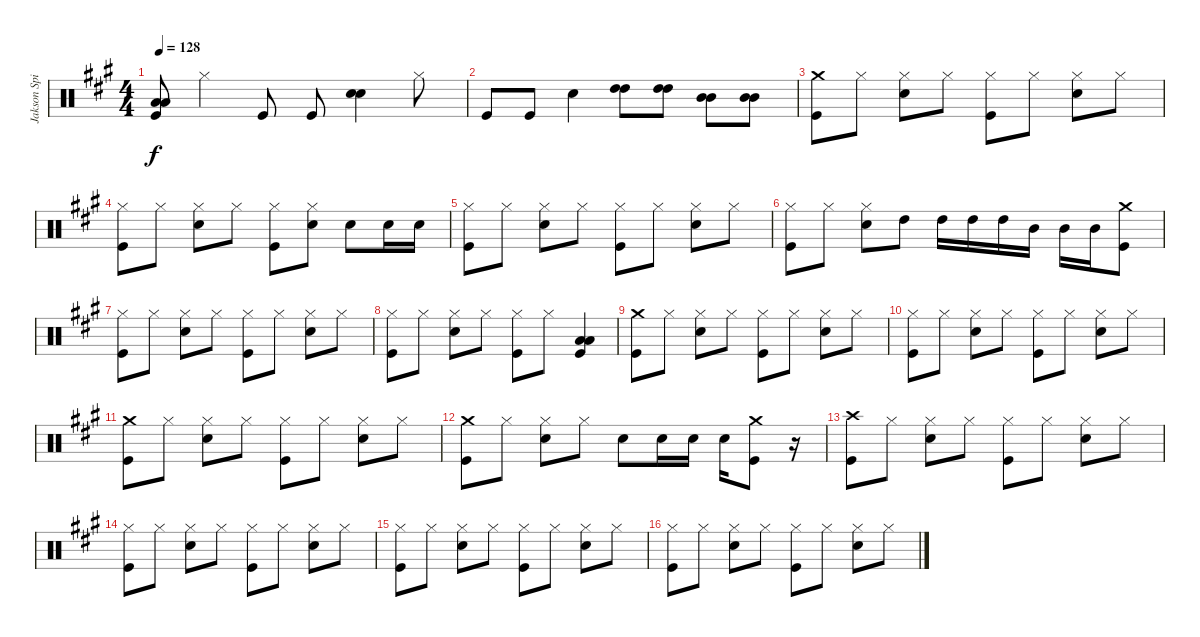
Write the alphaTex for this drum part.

\track ("Jakson Spires Drums" "Jakson Spi") {instrument percussion}
\staff {score}
\articulation defaults
\ts (4 4)
\tempo 128
\clef neutral
\ks a
("Low Tom (hit)" "Low Tom (hit)" "Kick (hit)").8{dy f} "Hi-Hat (closed)".4 "Kick (hit)".8 "Kick (hit)".8 ("Snare (hit) 2" "Snare (hit) 2").4 "Hi-Hat (closed)".8 |
"Kick (hit)".8 "Kick (hit)".8 "Snare (hit) 2".4 ("High Tom (hit)" "High Tom (hit)").8 ("High Tom (hit)" "High Tom (hit)").8 ("Mid Tom (hit)" "Mid Tom (hit)").8 ("Mid Tom (hit)" "Mid Tom (hit)").8 |
("Crash medium (hit)" "Kick (hit)").8 "Hi-Hat (closed)".8 ("Hi-Hat (closed)" "Snare (hit) 2").8 "Hi-Hat (closed)".8 ("Hi-Hat (closed)" "Kick (hit)").8 "Hi-Hat (closed)".8 ("Hi-Hat (closed)" "Snare (hit) 2").8 "Hi-Hat (closed)".8 |
("Hi-Hat (closed)" "Kick (hit)").8 "Hi-Hat (closed)".8 ("Hi-Hat (closed)" "Snare (hit) 2").8 "Hi-Hat (closed)".8 ("Hi-Hat (closed)" "Kick (hit)").8 ("Hi-Hat (closed)" "Snare (hit) 2").8 "Snare (hit) 2".8 "Snare (hit) 2".16 "Snare (hit) 2".16 |
("Hi-Hat (closed)" "Kick (hit)").8 "Hi-Hat (closed)".8 ("Hi-Hat (closed)" "Snare (hit) 2").8 "Hi-Hat (closed)".8 ("Hi-Hat (closed)" "Kick (hit)").8 "Hi-Hat (closed)".8 ("Hi-Hat (closed)" "Snare (hit) 2").8 "Hi-Hat (closed)".8 |
("Hi-Hat (closed)" "Kick (hit)").8 "Hi-Hat (closed)".8 ("Hi-Hat (closed)" "Snare (hit) 2").8 "High Tom (hit)".8 "High Tom (hit)".16 "High Tom (hit)".16 "High Tom (hit)".16 "Mid Tom (hit)".16 "Mid Tom (hit)".16 "Mid Tom (hit)".16 ("Crash medium (hit)" "Kick (hit)").8 |
("Hi-Hat (closed)" "Kick (hit)").8 "Hi-Hat (closed)".8 ("Hi-Hat (closed)" "Snare (hit) 2").8 "Hi-Hat (closed)".8 ("Hi-Hat (closed)" "Kick (hit)").8 "Hi-Hat (closed)".8 ("Hi-Hat (closed)" "Snare (hit) 2").8 "Hi-Hat (closed)".8 |
("Hi-Hat (closed)" "Kick (hit)").8 "Hi-Hat (closed)".8 ("Hi-Hat (closed)" "Snare (hit) 2").8 "Hi-Hat (closed)".8 ("Hi-Hat (closed)" "Kick (hit)").8 "Hi-Hat (closed)".8 ("Low Tom (hit)" "Low Tom (hit)" "Kick (hit)").4 |
("Crash medium (hit)" "Kick (hit)").8 "Hi-Hat (closed)".8 ("Hi-Hat (closed)" "Snare (hit) 2").8 "Hi-Hat (closed)".8 ("Hi-Hat (closed)" "Kick (hit)").8 "Hi-Hat (closed)".8 ("Hi-Hat (closed)" "Snare (hit) 2").8 "Hi-Hat (closed)".8 |
("Hi-Hat (closed)" "Kick (hit)").8 "Hi-Hat (closed)".8 ("Hi-Hat (closed)" "Snare (hit) 2").8 "Hi-Hat (closed)".8 ("Hi-Hat (closed)" "Kick (hit)").8 "Hi-Hat (closed)".8 ("Hi-Hat (closed)" "Snare (hit) 2").8 "Hi-Hat (closed)".8 |
("Crash medium (hit)" "Kick (hit)").8 "Hi-Hat (closed)".8 ("Hi-Hat (closed)" "Snare (hit) 2").8 "Hi-Hat (closed)".8 ("Hi-Hat (closed)" "Kick (hit)").8 "Hi-Hat (closed)".8 ("Hi-Hat (closed)" "Snare (hit) 2").8 "Hi-Hat (closed)".8 |
("Crash medium (hit)" "Kick (hit)").8 "Hi-Hat (closed)".8 ("Hi-Hat (closed)" "Snare (hit) 2").8 "Hi-Hat (closed)".8 "Snare (hit) 2".8 "Snare (hit) 2".16 "Snare (hit) 2".16 "Snare (hit) 2".16 ("Crash medium (hit)" "Kick (hit)").8 r.16 |
("Crash high (hit)" "Kick (hit)").8 "Hi-Hat (closed)".8 ("Hi-Hat (closed)" "Snare (hit) 2").8 "Hi-Hat (closed)".8 ("Hi-Hat (closed)" "Kick (hit)").8 "Hi-Hat (closed)".8 ("Hi-Hat (closed)" "Snare (hit) 2").8 "Hi-Hat (closed)".8 |
("Hi-Hat (closed)" "Kick (hit)").8 "Hi-Hat (closed)".8 ("Hi-Hat (closed)" "Snare (hit) 2").8 "Hi-Hat (closed)".8 ("Hi-Hat (closed)" "Kick (hit)").8 "Hi-Hat (closed)".8 ("Hi-Hat (closed)" "Snare (hit) 2").8 "Hi-Hat (closed)".8 |
("Hi-Hat (closed)" "Kick (hit)").8 "Hi-Hat (closed)".8 ("Hi-Hat (closed)" "Snare (hit) 2").8 "Hi-Hat (closed)".8 ("Hi-Hat (closed)" "Kick (hit)").8 "Hi-Hat (closed)".8 ("Hi-Hat (closed)" "Snare (hit) 2").8 "Hi-Hat (closed)".8 |
("Hi-Hat (closed)" "Kick (hit)").8 "Hi-Hat (closed)".8 ("Hi-Hat (closed)" "Snare (hit) 2").8 "Hi-Hat (closed)".8 ("Hi-Hat (closed)" "Kick (hit)").8 "Hi-Hat (closed)".8 ("Hi-Hat (closed)" "Snare (hit) 2").8 "Hi-Hat (closed)".8
